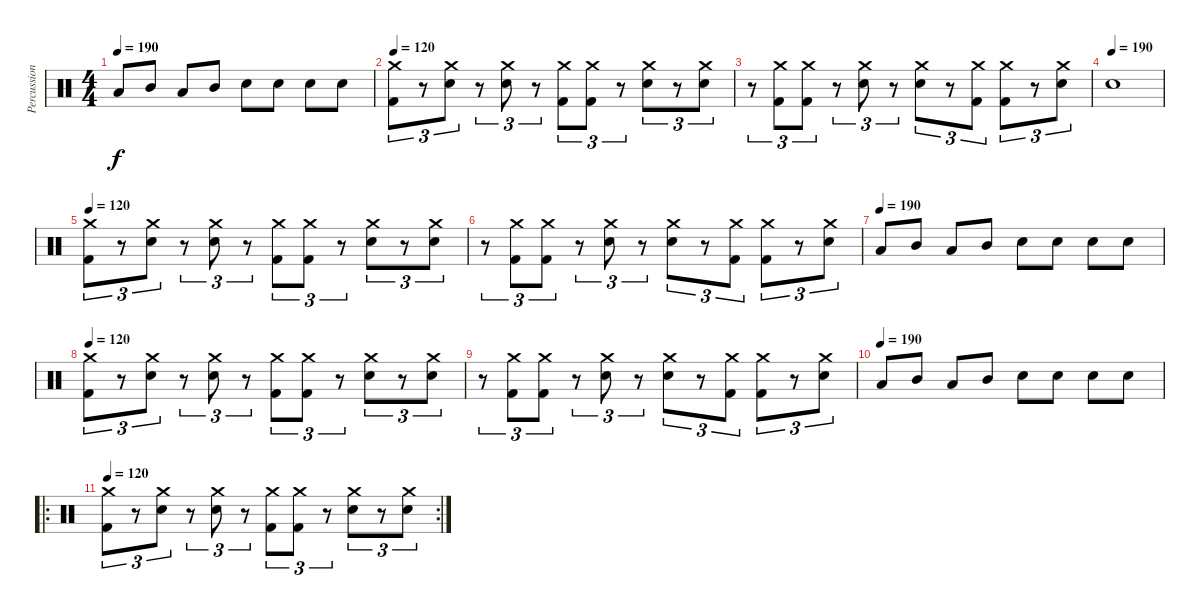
\track ("Percussion" "Percussion") {instrument percussion}
\staff {score}
\articulation defaults
\ts (4 4)
\tempo 190
\clef neutral
\ks c "Low Tom (hit)".8{dy f} "Mid Tom (hit)".8 "Low Tom (hit)".8 "Mid Tom (hit)".8 "Snare (hit) 2".8 "Snare (hit) 2".8 "Snare (hit) 2".8 "Snare (hit) 2".8
|
\tempo 120
("Crash medium (hit)" "Kick (hit) 2").8{tu (3 2)} r.8{tu (3 2)} ("Crash medium (hit)" "Snare (hit) 2").8{tu (3 2)} r.8{tu (3 2)} ("Crash medium (hit)" "Snare (hit) 2").8{tu (3 2)} r.8{tu (3 2)} ("Crash medium (hit)" "Kick (hit) 2").8{tu (3 2)} ("Crash medium (hit)" "Kick (hit) 2").8{tu (3 2)} r.8{tu (3 2)} ("Crash medium (hit)" "Snare (hit) 2").8{tu (3 2)} r.8{tu (3 2)} ("Crash medium (hit)" "Snare (hit) 2").8{tu (3 2)} |
r.8{tu (3 2)} ("Crash medium (hit)" "Kick (hit) 2").8{tu (3 2)} ("Crash medium (hit)" "Kick (hit) 2").8{tu (3 2)} r.8{tu (3 2)} ("Crash medium (hit)" "Snare (hit) 2").8{tu (3 2)} r.8{tu (3 2)} ("Crash medium (hit)" "Snare (hit) 2").8{tu (3 2)} r.8{tu (3 2)} ("Crash medium (hit)" "Kick (hit) 2").8{tu (3 2)} ("Crash medium (hit)" "Kick (hit) 2").8{tu (3 2)} r.8{tu (3 2)} ("Crash medium (hit)" "Snare (hit) 2").8{tu (3 2)} |
\tempo (190)
"Snare (hit) 2".1 |
\tempo 120
("Crash medium (hit)" "Kick (hit) 2").8{tu (3 2)} r.8{tu (3 2)} ("Crash medium (hit)" "Snare (hit) 2").8{tu (3 2)} r.8{tu (3 2)} ("Crash medium (hit)" "Snare (hit) 2").8{tu (3 2)} r.8{tu (3 2)} ("Crash medium (hit)" "Kick (hit) 2").8{tu (3 2)} ("Crash medium (hit)" "Kick (hit) 2").8{tu (3 2)} r.8{tu (3 2)} ("Crash medium (hit)" "Snare (hit) 2").8{tu (3 2)} r.8{tu (3 2)} ("Crash medium (hit)" "Snare (hit) 2").8{tu (3 2)} |
r.8{tu (3 2)} ("Crash medium (hit)" "Kick (hit) 2").8{tu (3 2)} ("Crash medium (hit)" "Kick (hit) 2").8{tu (3 2)} r.8{tu (3 2)} ("Crash medium (hit)" "Snare (hit) 2").8{tu (3 2)} r.8{tu (3 2)} ("Crash medium (hit)" "Snare (hit) 2").8{tu (3 2)} r.8{tu (3 2)} ("Crash medium (hit)" "Kick (hit) 2").8{tu (3 2)} ("Crash medium (hit)" "Kick (hit) 2").8{tu (3 2)} r.8{tu (3 2)} ("Crash medium (hit)" "Snare (hit) 2").8{tu (3 2)} |
\tempo (190)
"Low Tom (hit)".8 "Mid Tom (hit)".8 "Low Tom (hit)".8 "Mid Tom (hit)".8 "Snare (hit) 2".8 "Snare (hit) 2".8 "Snare (hit) 2".8 "Snare (hit) 2".8 |
\tempo 120
("Crash medium (hit)" "Kick (hit) 2").8{tu (3 2)} r.8{tu (3 2)} ("Crash medium (hit)" "Snare (hit) 2").8{tu (3 2)} r.8{tu (3 2)} ("Crash medium (hit)" "Snare (hit) 2").8{tu (3 2)} r.8{tu (3 2)} ("Crash medium (hit)" "Kick (hit) 2").8{tu (3 2)} ("Crash medium (hit)" "Kick (hit) 2").8{tu (3 2)} r.8{tu (3 2)} ("Crash medium (hit)" "Snare (hit) 2").8{tu (3 2)} r.8{tu (3 2)} ("Crash medium (hit)" "Snare (hit) 2").8{tu (3 2)} |
r.8{tu (3 2)} ("Crash medium (hit)" "Kick (hit) 2").8{tu (3 2)} ("Crash medium (hit)" "Kick (hit) 2").8{tu (3 2)} r.8{tu (3 2)} ("Crash medium (hit)" "Snare (hit) 2").8{tu (3 2)} r.8{tu (3 2)} ("Crash medium (hit)" "Snare (hit) 2").8{tu (3 2)} r.8{tu (3 2)} ("Crash medium (hit)" "Kick (hit) 2").8{tu (3 2)} ("Crash medium (hit)" "Kick (hit) 2").8{tu (3 2)} r.8{tu (3 2)} ("Crash medium (hit)" "Snare (hit) 2").8{tu (3 2)} |
\tempo (190)
"Low Tom (hit)".8 "Mid Tom (hit)".8 "Low Tom (hit)".8 "Mid Tom (hit)".8 "Snare (hit) 2".8 "Snare (hit) 2".8 "Snare (hit) 2".8 "Snare (hit) 2".8 |
\ro
\rc 2
\tempo 120
("Crash medium (hit)" "Kick (hit) 2").8{tu (3 2)} r.8{tu (3 2)} ("Crash medium (hit)" "Snare (hit) 2").8{tu (3 2)} r.8{tu (3 2)} ("Crash medium (hit)" "Snare (hit) 2").8{tu (3 2)} r.8{tu (3 2)} ("Crash medium (hit)" "Kick (hit) 2").8{tu (3 2)} ("Crash medium (hit)" "Kick (hit) 2").8{tu (3 2)} r.8{tu (3 2)} ("Crash medium (hit)" "Snare (hit) 2").8{tu (3 2)} r.8{tu (3 2)} ("Crash medium (hit)" "Snare (hit) 2").8{tu (3 2)}
